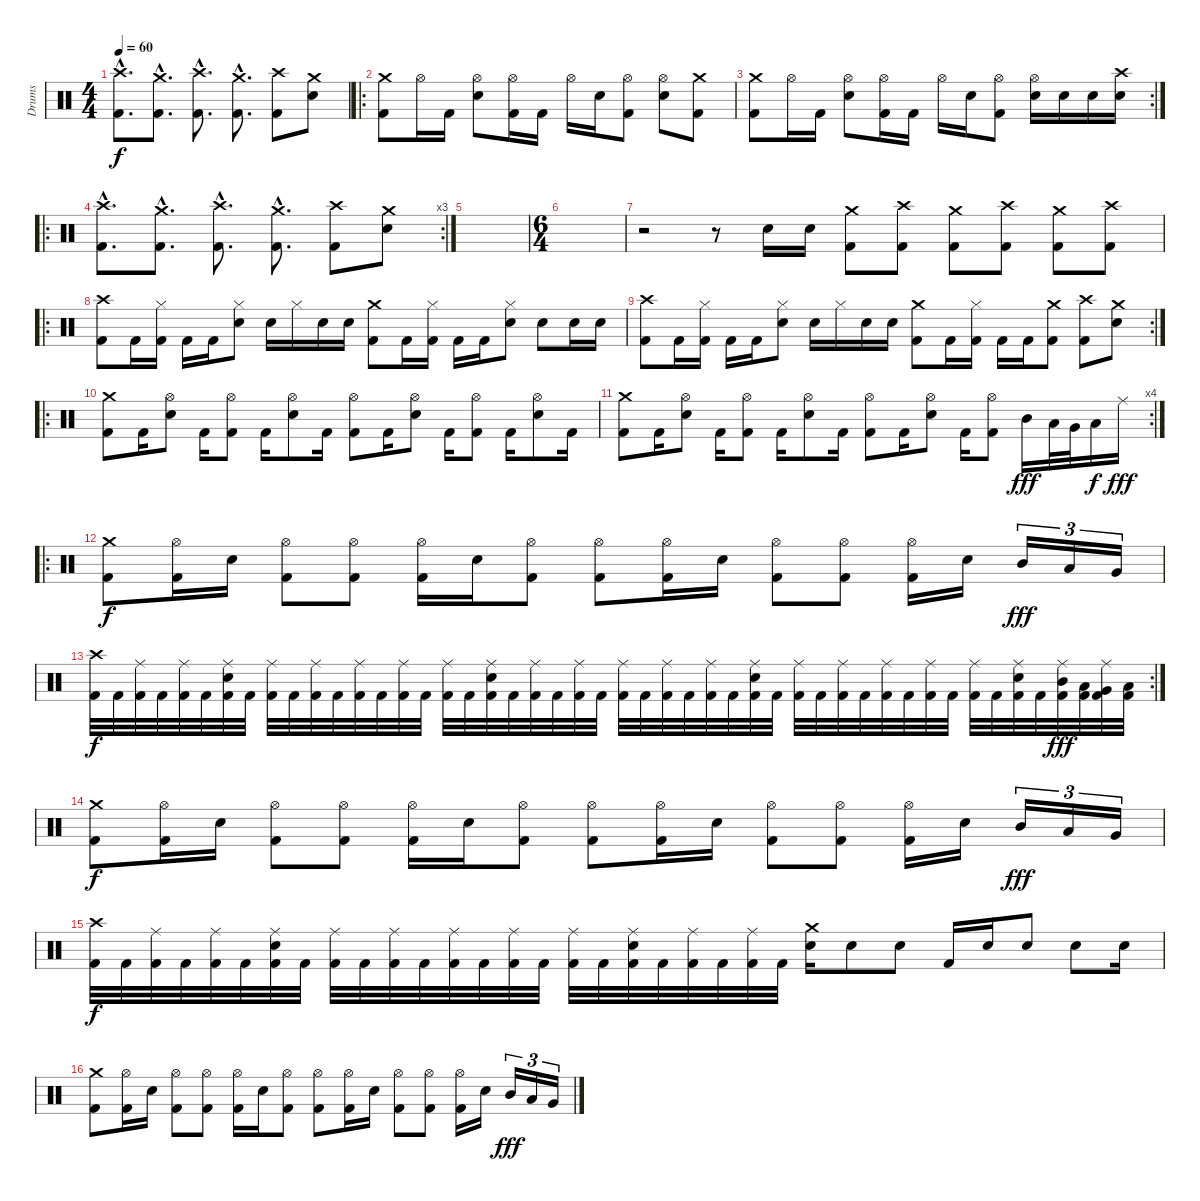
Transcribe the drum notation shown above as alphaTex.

\track ("Drums" "Drums") {instrument percussion}
\staff {score}
\articulation defaults
\ts (4 4)
\tempo 60
\clef neutral
\ks c
("Crash high (hit)"{hac} "Kick (hit) 2"{hac}).8{d dy f} ("Crash medium (hit)"{hac} "Kick (hit) 2"{hac}).8{d} ("Crash high (hit)"{hac} "Kick (hit) 2"{hac}).8{d} ("Crash medium (hit)"{hac} "Kick (hit) 2"{hac}).8{d} ("Crash high (hit)" "Kick (hit) 2").8 ("Crash medium (hit)" "Electric Snare (hit)").8 |
\ro
("Crash medium (hit)" "Kick (hit) 2").8 "Hi-Hat (open)".16 "Kick (hit) 2".16 ("Hi-Hat (open)" "Electric Snare (hit)").8 ("Hi-Hat (open)" "Kick (hit) 2").16 "Kick (hit) 2".16 "Hi-Hat (open)".16 "Electric Snare (hit)".16 ("Hi-Hat (open)" "Kick (hit) 2").8 ("Hi-Hat (open)" "Electric Snare (hit)").8 ("Crash medium (hit)" "Kick (hit) 2").8 |
\rc 2
("Crash medium (hit)" "Kick (hit) 2").8 "Hi-Hat (open)".16 "Kick (hit) 2".16 ("Hi-Hat (open)" "Electric Snare (hit)").8 ("Hi-Hat (open)" "Kick (hit) 2").16 "Kick (hit) 2".16 "Hi-Hat (open)".16 "Electric Snare (hit)".16 ("Hi-Hat (open)" "Kick (hit) 2").8 ("Hi-Hat (open)" "Electric Snare (hit)").16 "Electric Snare (hit)".16 "Electric Snare (hit)".16 ("Crash high (hit)" "Electric Snare (hit)").16 |
\ro
\rc 3
("Crash high (hit)"{hac} "Kick (hit) 2"{hac}).8{d} ("Crash medium (hit)"{hac} "Kick (hit) 2"{hac}).8{d} ("Crash high (hit)"{hac} "Kick (hit) 2"{hac}).8{d} ("Crash medium (hit)"{hac} "Kick (hit) 2"{hac}).8{d} ("Crash high (hit)" "Kick (hit) 2").8 ("Crash medium (hit)" "Electric Snare (hit)").8 |
|
\ts (6 4)
|
r.2 r.8 "Electric Snare (hit)".16 "Electric Snare (hit)".16 ("Crash medium (hit)" "Kick (hit) 2").8 ("Crash high (hit)" "Kick (hit) 2").8 ("Crash medium (hit)" "Kick (hit) 2").8 ("Crash high (hit)" "Kick (hit) 2").8 ("Crash medium (hit)" "Kick (hit) 2").8 ("Crash high (hit)" "Kick (hit) 2").8 |
\ro
("Crash high (hit)" "Kick (hit) 2").8 "Kick (hit) 2".16 ("Hi-Hat (closed)" "Kick (hit) 2").16 "Kick (hit) 2".16 "Kick (hit) 2".16 ("Hi-Hat (closed)" "Electric Snare (hit)").8 "Electric Snare (hit)".16 "Hi-Hat (closed)".16 "Electric Snare (hit)".16 "Electric Snare (hit)".16 ("Crash medium (hit)" "Kick (hit) 2").8 "Kick (hit) 2".16 ("Hi-Hat (closed)" "Kick (hit) 2").16 "Kick (hit) 2".16 "Kick (hit) 2".16 ("Hi-Hat (closed)" "Electric Snare (hit)").8 "Electric Snare (hit)".8 "Electric Snare (hit)".16 "Electric Snare (hit)".16 |
\rc 2
("Crash high (hit)" "Kick (hit) 2").8 "Kick (hit) 2".16 ("Hi-Hat (closed)" "Kick (hit) 2").16 "Kick (hit) 2".16 "Kick (hit) 2".16 ("Hi-Hat (closed)" "Electric Snare (hit)").8 "Electric Snare (hit)".16 "Hi-Hat (closed)".16 "Electric Snare (hit)".16 "Electric Snare (hit)".16 ("Crash medium (hit)" "Kick (hit) 2").8 "Kick (hit) 2".16 ("Hi-Hat (closed)" "Kick (hit) 2").16 "Kick (hit) 2".16 "Kick (hit) 2".16 ("Crash medium (hit)" "Kick (hit) 2").8 ("Crash high (hit)" "Kick (hit) 2").8 ("Crash medium (hit)" "Electric Snare (hit)").8 |
\ro
("Crash medium (hit)" "Kick (hit) 2").8 "Kick (hit) 2".16 ("Hi-Hat (open)" "Electric Snare (hit)").8 "Kick (hit) 2".16 ("Hi-Hat (open)" "Kick (hit) 2").8 "Kick (hit) 2".16 ("Hi-Hat (open)" "Electric Snare (hit)").8 "Kick (hit) 2".16 ("Hi-Hat (open)" "Kick (hit) 2").8 "Kick (hit) 2".16 ("Hi-Hat (open)" "Electric Snare (hit)").8 "Kick (hit) 2".16 ("Hi-Hat (open)" "Kick (hit) 2").8 "Kick (hit) 2".16 ("Hi-Hat (open)" "Electric Snare (hit)").8 "Kick (hit) 2".16 |
\rc 4
("Crash medium (hit)" "Kick (hit) 2").8 "Kick (hit) 2".16 ("Hi-Hat (open)" "Electric Snare (hit)").8 "Kick (hit) 2".16 ("Hi-Hat (open)" "Kick (hit) 2").8 "Kick (hit) 2".16 ("Hi-Hat (open)" "Electric Snare (hit)").8 "Kick (hit) 2".16 ("Hi-Hat (open)" "Kick (hit) 2").8 "Kick (hit) 2".16 ("Hi-Hat (open)" "Electric Snare (hit)").8 "Kick (hit) 2".16 ("Hi-Hat (open)" "Kick (hit) 2").8 "Mid Tom (hit)".16{dy fff} "Low Tom (hit)".32 "Very Low Tom (hit)".32 "Low Floor Tom (hit)".16{dy f} "Ride (middle)".16{dy fff} |
\ro
("Crash medium (hit)" "Kick (hit) 2").8{dy f} ("Hi-Hat (open)" "Kick (hit) 2").16 "Electric Snare (hit)".16 ("Hi-Hat (open)" "Kick (hit) 2").8 ("Hi-Hat (open)" "Kick (hit) 2").8 ("Hi-Hat (open)" "Kick (hit) 2").16 "Electric Snare (hit)".16 ("Hi-Hat (open)" "Kick (hit) 2").8 ("Hi-Hat (open)" "Kick (hit) 2").8 ("Hi-Hat (open)" "Kick (hit) 2").16 "Electric Snare (hit)".16 ("Hi-Hat (open)" "Kick (hit) 2").8 ("Hi-Hat (open)" "Kick (hit) 2").8 ("Hi-Hat (open)" "Kick (hit) 2").16 "Electric Snare (hit)".16 "Mid Tom (hit)".16{tu (3 2) dy fff} "Low Tom (hit)".16{tu (3 2)} "Very Low Tom (hit)".16{tu (3 2)} |
\rc 2
("Crash high (hit)" "Kick (hit) 2").32{dy f} "Kick (hit) 2".32 ("Ride (middle)" "Kick (hit) 2").32 "Kick (hit) 2".32 ("Ride (middle)" "Kick (hit) 2").32 "Kick (hit) 2".32 ("Ride (middle)" "Electric Snare (hit)" "Kick (hit) 2").32 "Kick (hit) 2".32 ("Ride (middle)" "Kick (hit) 2").32 "Kick (hit) 2".32 ("Ride (middle)" "Kick (hit) 2").32 "Kick (hit) 2".32 ("Ride (middle)" "Kick (hit) 2").32 "Kick (hit) 2".32 ("Ride (middle)" "Kick (hit) 2").32 "Kick (hit) 2".32 ("Ride (middle)" "Kick (hit) 2").32 "Kick (hit) 2".32 ("Ride (middle)" "Electric Snare (hit)" "Kick (hit) 2").32 "Kick (hit) 2".32 ("Ride (middle)" "Kick (hit) 2").32 "Kick (hit) 2".32 ("Ride (middle)" "Kick (hit) 2").32 "Kick (hit) 2".32 ("Ride (middle)" "Kick (hit) 2").32 "Kick (hit) 2".32 ("Ride (middle)" "Kick (hit) 2").32 "Kick (hit) 2".32 ("Ride (middle)" "Kick (hit) 2").32 "Kick (hit) 2".32 ("Ride (middle)" "Electric Snare (hit)" "Kick (hit) 2").32 "Kick (hit) 2".32 ("Ride (middle)" "Kick (hit) 2").32 "Kick (hit) 2".32 ("Ride (middle)" "Kick (hit) 2").32 "Kick (hit) 2".32 ("Ride (middle)" "Kick (hit) 2").32 "Kick (hit) 2".32 ("Ride (middle)" "Kick (hit) 2").32 "Kick (hit) 2".32 ("Ride (middle)" "Kick (hit) 2").32 "Kick (hit) 2".32 ("Ride (middle)" "Electric Snare (hit)" "Kick (hit) 2").32 "Kick (hit) 2".32 ("Ride (middle)" "Mid Tom (hit)" "Kick (hit) 2").32{dy fff} ("Low Tom (hit)" "Kick (hit) 2").32 ("Ride (middle)" "Very Low Tom (hit)" "Kick (hit) 2").32 ("Low Floor Tom (hit)" "Kick (hit) 2").32 |
("Crash medium (hit)" "Kick (hit) 2").8{dy f} ("Hi-Hat (open)" "Kick (hit) 2").16 "Electric Snare (hit)".16 ("Hi-Hat (open)" "Kick (hit) 2").8 ("Hi-Hat (open)" "Kick (hit) 2").8 ("Hi-Hat (open)" "Kick (hit) 2").16 "Electric Snare (hit)".16 ("Hi-Hat (open)" "Kick (hit) 2").8 ("Hi-Hat (open)" "Kick (hit) 2").8 ("Hi-Hat (open)" "Kick (hit) 2").16 "Electric Snare (hit)".16 ("Hi-Hat (open)" "Kick (hit) 2").8 ("Hi-Hat (open)" "Kick (hit) 2").8 ("Hi-Hat (open)" "Kick (hit) 2").16 "Electric Snare (hit)".16 "Mid Tom (hit)".16{tu (3 2) dy fff} "Low Tom (hit)".16{tu (3 2)} "Very Low Tom (hit)".16{tu (3 2)} |
("Crash high (hit)" "Kick (hit) 2").32{dy f} "Kick (hit) 2".32 ("Ride (middle)" "Kick (hit) 2").32 "Kick (hit) 2".32 ("Ride (middle)" "Kick (hit) 2").32 "Kick (hit) 2".32 ("Ride (middle)" "Electric Snare (hit)" "Kick (hit) 2").32 "Kick (hit) 2".32 ("Ride (middle)" "Kick (hit) 2").32 "Kick (hit) 2".32 ("Ride (middle)" "Kick (hit) 2").32 "Kick (hit) 2".32 ("Ride (middle)" "Kick (hit) 2").32 "Kick (hit) 2".32 ("Ride (middle)" "Kick (hit) 2").32 "Kick (hit) 2".32 ("Ride (middle)" "Kick (hit) 2").32 "Kick (hit) 2".32 ("Ride (middle)" "Electric Snare (hit)" "Kick (hit) 2").32 "Kick (hit) 2".32 ("Ride (middle)" "Kick (hit) 2").32 "Kick (hit) 2".32 ("Ride (middle)" "Kick (hit) 2").32 "Kick (hit) 2".32 ("Crash medium (hit)" "Electric Snare (hit)").16 "Electric Snare (hit)".8 "Electric Snare (hit)".8 "Kick (hit) 2".16 "Electric Snare (hit)".16 "Electric Snare (hit)".8 "Electric Snare (hit)".8 "Electric Snare (hit)".16 |
("Crash medium (hit)" "Kick (hit) 2").8 ("Hi-Hat (open)" "Kick (hit) 2").16 "Electric Snare (hit)".16 ("Hi-Hat (open)" "Kick (hit) 2").8 ("Hi-Hat (open)" "Kick (hit) 2").8 ("Hi-Hat (open)" "Kick (hit) 2").16 "Electric Snare (hit)".16 ("Hi-Hat (open)" "Kick (hit) 2").8 ("Hi-Hat (open)" "Kick (hit) 2").8 ("Hi-Hat (open)" "Kick (hit) 2").16 "Electric Snare (hit)".16 ("Hi-Hat (open)" "Kick (hit) 2").8 ("Hi-Hat (open)" "Kick (hit) 2").8 ("Hi-Hat (open)" "Kick (hit) 2").16 "Electric Snare (hit)".16 "Mid Tom (hit)".16{tu (3 2) dy fff} "Low Tom (hit)".16{tu (3 2)} "Very Low Tom (hit)".16{tu (3 2)}
